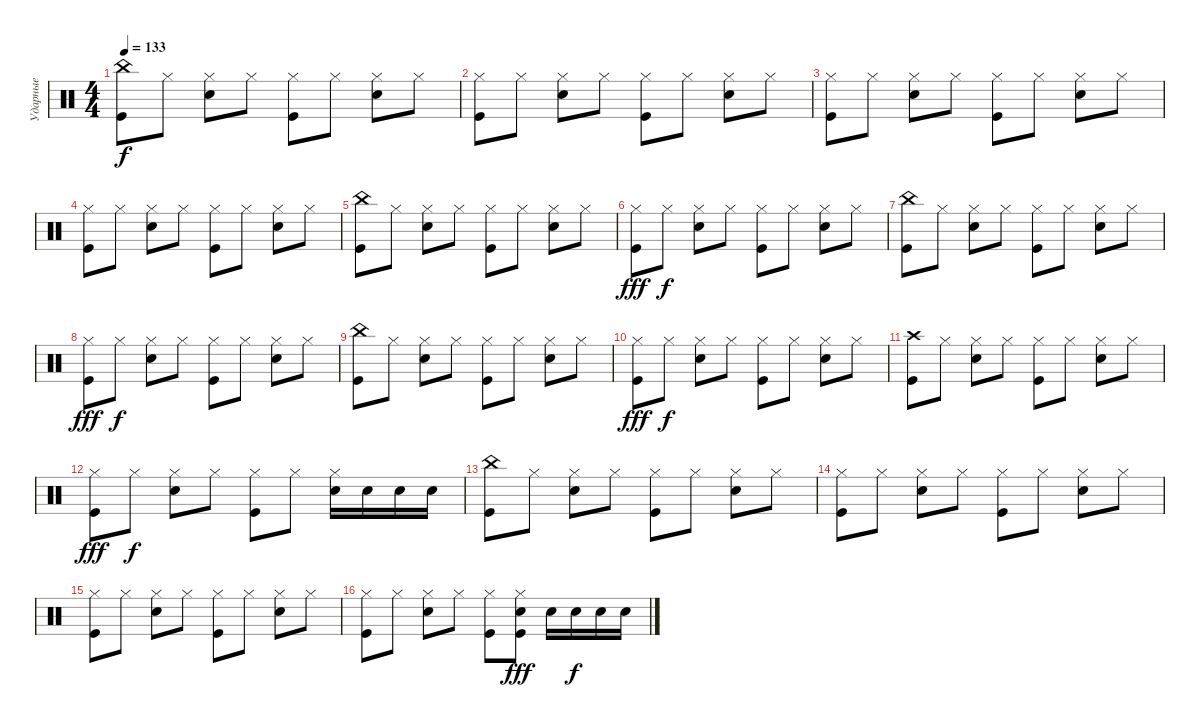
\track ("Ударные" "Ударные") {instrument percussion}
\staff {score}
\articulation defaults
\ts (4 4)
\tempo 133
\clef neutral
\ks c
("China (hit)" "Kick (hit)").8{dy f} "Hi-Hat (closed)".8 ("Hi-Hat (closed)" "Electric Snare (hit)").8 "Hi-Hat (closed)".8 ("Hi-Hat (closed)" "Kick (hit)").8 "Hi-Hat (closed)".8 ("Hi-Hat (closed)" "Electric Snare (hit)").8 "Hi-Hat (closed)".8 |
("Hi-Hat (closed)" "Kick (hit)").8 "Hi-Hat (closed)".8 ("Hi-Hat (closed)" "Electric Snare (hit)").8 "Hi-Hat (closed)".8 ("Hi-Hat (closed)" "Kick (hit)").8 "Hi-Hat (closed)".8 ("Hi-Hat (closed)" "Electric Snare (hit)").8 "Hi-Hat (closed)".8 |
("Hi-Hat (closed)" "Kick (hit)").8 "Hi-Hat (closed)".8 ("Hi-Hat (closed)" "Electric Snare (hit)").8 "Hi-Hat (closed)".8 ("Hi-Hat (closed)" "Kick (hit)").8 "Hi-Hat (closed)".8 ("Hi-Hat (closed)" "Electric Snare (hit)").8 "Hi-Hat (closed)".8 |
("Hi-Hat (closed)" "Kick (hit)").8 "Hi-Hat (closed)".8 ("Hi-Hat (closed)" "Electric Snare (hit)").8 "Hi-Hat (closed)".8 ("Hi-Hat (closed)" "Kick (hit)").8 "Hi-Hat (closed)".8 ("Hi-Hat (closed)" "Electric Snare (hit)").8 "Hi-Hat (closed)".8 |
("China (hit)" "Kick (hit)").8 "Hi-Hat (closed)".8 ("Hi-Hat (closed)" "Electric Snare (hit)").8 "Hi-Hat (closed)".8 ("Hi-Hat (closed)" "Kick (hit)").8 "Hi-Hat (closed)".8 ("Hi-Hat (closed)" "Electric Snare (hit)").8 "Hi-Hat (closed)".8 |
("Hi-Hat (closed)" "Kick (hit)").8{dy fff} "Hi-Hat (closed)".8{dy f} ("Hi-Hat (closed)" "Electric Snare (hit)").8 "Hi-Hat (closed)".8 ("Hi-Hat (closed)" "Kick (hit)").8 "Hi-Hat (closed)".8 ("Hi-Hat (closed)" "Electric Snare (hit)").8 "Hi-Hat (closed)".8 |
("China (hit)" "Kick (hit)").8 "Hi-Hat (closed)".8 ("Hi-Hat (closed)" "Electric Snare (hit)").8 "Hi-Hat (closed)".8 ("Hi-Hat (closed)" "Kick (hit)").8 "Hi-Hat (closed)".8 ("Hi-Hat (closed)" "Electric Snare (hit)").8 "Hi-Hat (closed)".8 |
("Hi-Hat (closed)" "Kick (hit)").8{dy fff} "Hi-Hat (closed)".8{dy f} ("Hi-Hat (closed)" "Electric Snare (hit)").8 "Hi-Hat (closed)".8 ("Hi-Hat (closed)" "Kick (hit)").8 "Hi-Hat (closed)".8 ("Hi-Hat (closed)" "Electric Snare (hit)").8 "Hi-Hat (closed)".8 |
("China (hit)" "Kick (hit)").8 "Hi-Hat (closed)".8 ("Hi-Hat (closed)" "Electric Snare (hit)").8 "Hi-Hat (closed)".8 ("Hi-Hat (closed)" "Kick (hit)").8 "Hi-Hat (closed)".8 ("Hi-Hat (closed)" "Electric Snare (hit)").8 "Hi-Hat (closed)".8 |
("Hi-Hat (closed)" "Kick (hit)").8{dy fff} "Hi-Hat (closed)".8{dy f} ("Hi-Hat (closed)" "Electric Snare (hit)").8 "Hi-Hat (closed)".8 ("Hi-Hat (closed)" "Kick (hit)").8 "Hi-Hat (closed)".8 ("Hi-Hat (closed)" "Electric Snare (hit)").8 "Hi-Hat (closed)".8 |
("Crash high (hit)" "Kick (hit)").8 "Hi-Hat (closed)".8 ("Hi-Hat (closed)" "Electric Snare (hit)").8 "Hi-Hat (closed)".8 ("Hi-Hat (closed)" "Kick (hit)").8 "Hi-Hat (closed)".8 ("Hi-Hat (closed)" "Electric Snare (hit)").8 "Hi-Hat (closed)".8 |
("Hi-Hat (closed)" "Kick (hit)").8{dy fff} "Hi-Hat (closed)".8{dy f} ("Hi-Hat (closed)" "Electric Snare (hit)").8 "Hi-Hat (closed)".8 ("Hi-Hat (closed)" "Kick (hit)").8 "Hi-Hat (closed)".8 ("Hi-Hat (closed)" "Electric Snare (hit)").16 "Electric Snare (hit)".16 "Electric Snare (hit)".16 "Electric Snare (hit)".16 |
("China (hit)" "Kick (hit)").8 "Hi-Hat (closed)".8 ("Hi-Hat (closed)" "Electric Snare (hit)").8 "Hi-Hat (closed)".8 ("Hi-Hat (closed)" "Kick (hit)").8 "Hi-Hat (closed)".8 ("Hi-Hat (closed)" "Electric Snare (hit)").8 "Hi-Hat (closed)".8 |
("Hi-Hat (closed)" "Kick (hit)").8 "Hi-Hat (closed)".8 ("Hi-Hat (closed)" "Electric Snare (hit)").8 "Hi-Hat (closed)".8 ("Hi-Hat (closed)" "Kick (hit)").8 "Hi-Hat (closed)".8 ("Hi-Hat (closed)" "Electric Snare (hit)").8 "Hi-Hat (closed)".8 |
("Hi-Hat (closed)" "Kick (hit)").8 "Hi-Hat (closed)".8 ("Hi-Hat (closed)" "Electric Snare (hit)").8 "Hi-Hat (closed)".8 ("Hi-Hat (closed)" "Kick (hit)").8 "Hi-Hat (closed)".8 ("Hi-Hat (closed)" "Electric Snare (hit)").8 "Hi-Hat (closed)".8 |
("Hi-Hat (closed)" "Kick (hit)").8 "Hi-Hat (closed)".8 ("Hi-Hat (closed)" "Electric Snare (hit)").8 "Hi-Hat (closed)".8 ("Hi-Hat (closed)" "Kick (hit)").8 ("Electric Snare (hit)" "Hi-Hat (closed)" "Kick (hit)").8{dy fff} "Electric Snare (hit)".16 "Electric Snare (hit)".16{dy f} "Electric Snare (hit)".16 "Electric Snare (hit)".16
